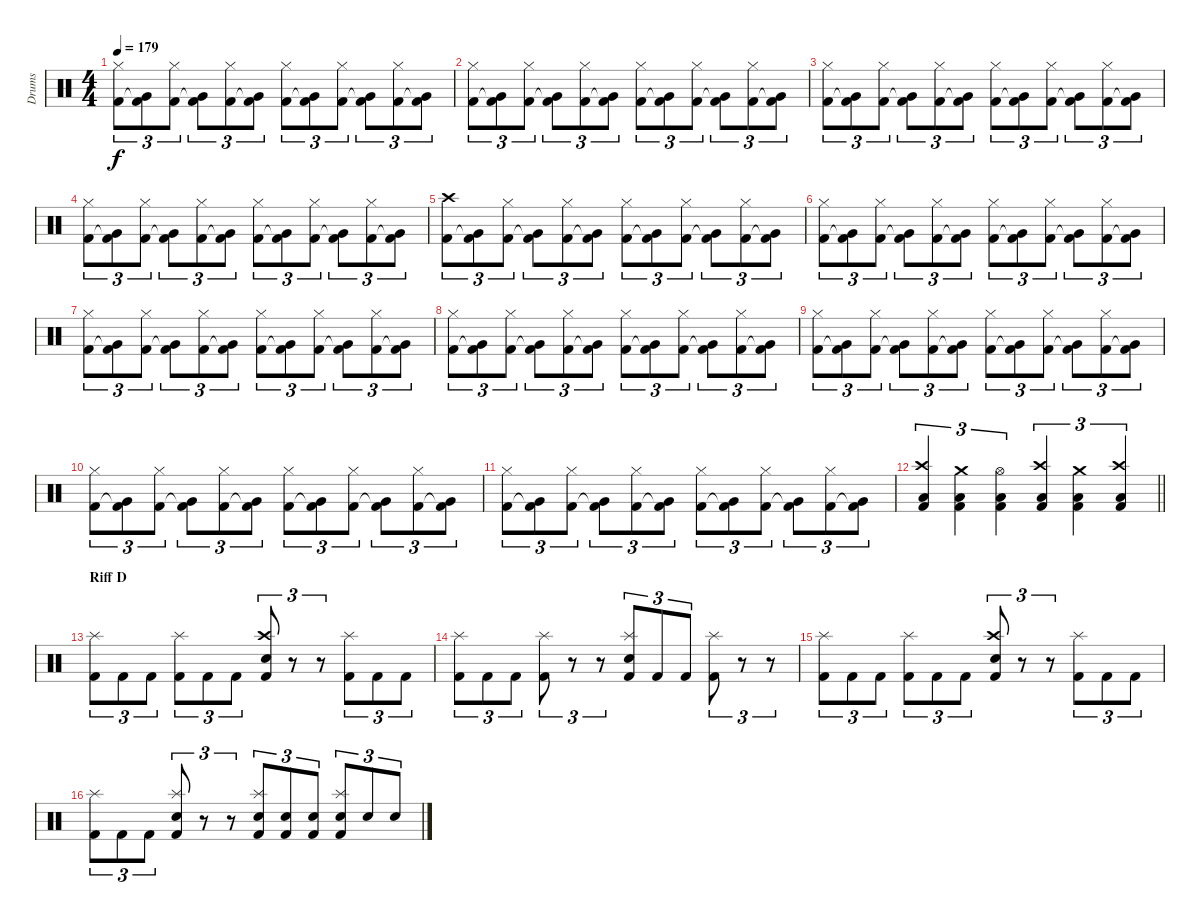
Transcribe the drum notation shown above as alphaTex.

\track ("Drums" "Drums") {instrument percussion}
\staff {score}
\articulation defaults
\ts (4 4)
\tempo 179
\clef neutral
\ks c
("Hi-Hat (closed)" "Kick (hit) 2").8{tu (3 2) dy f} ("Very Low Tom (hit)" "Kick (hit) 2"{t}).8{tu (3 2)} ("Hi-Hat (closed)" "Kick (hit) 2").8{tu (3 2)} ("Very Low Tom (hit)" "Kick (hit) 2"{t}).8{tu (3 2)} ("Hi-Hat (closed)" "Kick (hit) 2").8{tu (3 2)} ("Very Low Tom (hit)" "Kick (hit) 2"{t}).8{tu (3 2)} ("Hi-Hat (closed)" "Kick (hit) 2").8{tu (3 2)} ("Very Low Tom (hit)" "Kick (hit) 2"{t}).8{tu (3 2)} ("Hi-Hat (closed)" "Kick (hit) 2").8{tu (3 2)} ("Very Low Tom (hit)" "Kick (hit) 2"{t}).8{tu (3 2)} ("Hi-Hat (closed)" "Kick (hit) 2").8{tu (3 2)} ("Very Low Tom (hit)" "Kick (hit) 2"{t}).8{tu (3 2)} |
("Hi-Hat (closed)" "Kick (hit) 2").8{tu (3 2)} ("Very Low Tom (hit)" "Kick (hit) 2"{t}).8{tu (3 2)} ("Hi-Hat (closed)" "Kick (hit) 2").8{tu (3 2)} ("Very Low Tom (hit)" "Kick (hit) 2"{t}).8{tu (3 2)} ("Hi-Hat (closed)" "Kick (hit) 2").8{tu (3 2)} ("Very Low Tom (hit)" "Kick (hit) 2"{t}).8{tu (3 2)} ("Hi-Hat (closed)" "Kick (hit) 2").8{tu (3 2)} ("Very Low Tom (hit)" "Kick (hit) 2"{t}).8{tu (3 2)} ("Hi-Hat (closed)" "Kick (hit) 2").8{tu (3 2)} ("Very Low Tom (hit)" "Kick (hit) 2"{t}).8{tu (3 2)} ("Hi-Hat (closed)" "Kick (hit) 2").8{tu (3 2)} ("Very Low Tom (hit)" "Kick (hit) 2"{t}).8{tu (3 2)} |
("Hi-Hat (closed)" "Kick (hit) 2").8{tu (3 2)} ("Very Low Tom (hit)" "Kick (hit) 2"{t}).8{tu (3 2)} ("Hi-Hat (closed)" "Kick (hit) 2").8{tu (3 2)} ("Very Low Tom (hit)" "Kick (hit) 2"{t}).8{tu (3 2)} ("Hi-Hat (closed)" "Kick (hit) 2").8{tu (3 2)} ("Very Low Tom (hit)" "Kick (hit) 2"{t}).8{tu (3 2)} ("Hi-Hat (closed)" "Kick (hit) 2").8{tu (3 2)} ("Very Low Tom (hit)" "Kick (hit) 2"{t}).8{tu (3 2)} ("Hi-Hat (closed)" "Kick (hit) 2").8{tu (3 2)} ("Very Low Tom (hit)" "Kick (hit) 2"{t}).8{tu (3 2)} ("Hi-Hat (closed)" "Kick (hit) 2").8{tu (3 2)} ("Very Low Tom (hit)" "Kick (hit) 2"{t}).8{tu (3 2)} |
("Hi-Hat (closed)" "Kick (hit) 2").8{tu (3 2)} ("Very Low Tom (hit)" "Kick (hit) 2"{t}).8{tu (3 2)} ("Hi-Hat (closed)" "Kick (hit) 2").8{tu (3 2)} ("Very Low Tom (hit)" "Kick (hit) 2"{t}).8{tu (3 2)} ("Hi-Hat (closed)" "Kick (hit) 2").8{tu (3 2)} ("Very Low Tom (hit)" "Kick (hit) 2"{t}).8{tu (3 2)} ("Hi-Hat (closed)" "Kick (hit) 2").8{tu (3 2)} ("Very Low Tom (hit)" "Kick (hit) 2"{t}).8{tu (3 2)} ("Hi-Hat (closed)" "Kick (hit) 2").8{tu (3 2)} ("Very Low Tom (hit)" "Kick (hit) 2"{t}).8{tu (3 2)} ("Hi-Hat (closed)" "Kick (hit) 2").8{tu (3 2)} ("Very Low Tom (hit)" "Kick (hit) 2"{t}).8{tu (3 2)} |
("Crash high (hit)" "Kick (hit) 2").8{tu (3 2)} ("Very Low Tom (hit)" "Kick (hit) 2"{t}).8{tu (3 2)} ("Hi-Hat (closed)" "Kick (hit) 2").8{tu (3 2)} ("Very Low Tom (hit)" "Kick (hit) 2"{t}).8{tu (3 2)} ("Hi-Hat (closed)" "Kick (hit) 2").8{tu (3 2)} ("Very Low Tom (hit)" "Kick (hit) 2"{t}).8{tu (3 2)} ("Hi-Hat (closed)" "Kick (hit) 2").8{tu (3 2)} ("Very Low Tom (hit)" "Kick (hit) 2"{t}).8{tu (3 2)} ("Hi-Hat (closed)" "Kick (hit) 2").8{tu (3 2)} ("Very Low Tom (hit)" "Kick (hit) 2"{t}).8{tu (3 2)} ("Hi-Hat (closed)" "Kick (hit) 2").8{tu (3 2)} ("Very Low Tom (hit)" "Kick (hit) 2"{t}).8{tu (3 2)} |
("Hi-Hat (closed)" "Kick (hit) 2").8{tu (3 2)} ("Very Low Tom (hit)" "Kick (hit) 2"{t}).8{tu (3 2)} ("Hi-Hat (closed)" "Kick (hit) 2").8{tu (3 2)} ("Very Low Tom (hit)" "Kick (hit) 2"{t}).8{tu (3 2)} ("Hi-Hat (closed)" "Kick (hit) 2").8{tu (3 2)} ("Very Low Tom (hit)" "Kick (hit) 2"{t}).8{tu (3 2)} ("Hi-Hat (closed)" "Kick (hit) 2").8{tu (3 2)} ("Very Low Tom (hit)" "Kick (hit) 2"{t}).8{tu (3 2)} ("Hi-Hat (closed)" "Kick (hit) 2").8{tu (3 2)} ("Very Low Tom (hit)" "Kick (hit) 2"{t}).8{tu (3 2)} ("Hi-Hat (closed)" "Kick (hit) 2").8{tu (3 2)} ("Very Low Tom (hit)" "Kick (hit) 2"{t}).8{tu (3 2)} |
("Hi-Hat (closed)" "Kick (hit) 2").8{tu (3 2)} ("Very Low Tom (hit)" "Kick (hit) 2"{t}).8{tu (3 2)} ("Hi-Hat (closed)" "Kick (hit) 2").8{tu (3 2)} ("Very Low Tom (hit)" "Kick (hit) 2"{t}).8{tu (3 2)} ("Hi-Hat (closed)" "Kick (hit) 2").8{tu (3 2)} ("Very Low Tom (hit)" "Kick (hit) 2"{t}).8{tu (3 2)} ("Hi-Hat (closed)" "Kick (hit) 2").8{tu (3 2)} ("Very Low Tom (hit)" "Kick (hit) 2"{t}).8{tu (3 2)} ("Hi-Hat (closed)" "Kick (hit) 2").8{tu (3 2)} ("Very Low Tom (hit)" "Kick (hit) 2"{t}).8{tu (3 2)} ("Hi-Hat (closed)" "Kick (hit) 2").8{tu (3 2)} ("Very Low Tom (hit)" "Kick (hit) 2"{t}).8{tu (3 2)} |
("Hi-Hat (closed)" "Kick (hit) 2").8{tu (3 2)} ("Very Low Tom (hit)" "Kick (hit) 2"{t}).8{tu (3 2)} ("Hi-Hat (closed)" "Kick (hit) 2").8{tu (3 2)} ("Very Low Tom (hit)" "Kick (hit) 2"{t}).8{tu (3 2)} ("Hi-Hat (closed)" "Kick (hit) 2").8{tu (3 2)} ("Very Low Tom (hit)" "Kick (hit) 2"{t}).8{tu (3 2)} ("Hi-Hat (closed)" "Kick (hit) 2").8{tu (3 2)} ("Very Low Tom (hit)" "Kick (hit) 2"{t}).8{tu (3 2)} ("Hi-Hat (closed)" "Kick (hit) 2").8{tu (3 2)} ("Very Low Tom (hit)" "Kick (hit) 2"{t}).8{tu (3 2)} ("Hi-Hat (closed)" "Kick (hit) 2").8{tu (3 2)} ("Very Low Tom (hit)" "Kick (hit) 2"{t}).8{tu (3 2)} |
("Hi-Hat (closed)" "Kick (hit) 2").8{tu (3 2)} ("Very Low Tom (hit)" "Kick (hit) 2"{t}).8{tu (3 2)} ("Hi-Hat (closed)" "Kick (hit) 2").8{tu (3 2)} ("Very Low Tom (hit)" "Kick (hit) 2"{t}).8{tu (3 2)} ("Hi-Hat (closed)" "Kick (hit) 2").8{tu (3 2)} ("Very Low Tom (hit)" "Kick (hit) 2"{t}).8{tu (3 2)} ("Hi-Hat (closed)" "Kick (hit) 2").8{tu (3 2)} ("Very Low Tom (hit)" "Kick (hit) 2"{t}).8{tu (3 2)} ("Hi-Hat (closed)" "Kick (hit) 2").8{tu (3 2)} ("Very Low Tom (hit)" "Kick (hit) 2"{t}).8{tu (3 2)} ("Hi-Hat (closed)" "Kick (hit) 2").8{tu (3 2)} ("Very Low Tom (hit)" "Kick (hit) 2"{t}).8{tu (3 2)} |
("Hi-Hat (closed)" "Kick (hit) 2").8{tu (3 2)} ("Very Low Tom (hit)" "Kick (hit) 2"{t}).8{tu (3 2)} ("Hi-Hat (closed)" "Kick (hit) 2").8{tu (3 2)} ("Very Low Tom (hit)" "Kick (hit) 2"{t}).8{tu (3 2)} ("Hi-Hat (closed)" "Kick (hit) 2").8{tu (3 2)} ("Very Low Tom (hit)" "Kick (hit) 2"{t}).8{tu (3 2)} ("Hi-Hat (closed)" "Kick (hit) 2").8{tu (3 2)} ("Very Low Tom (hit)" "Kick (hit) 2"{t}).8{tu (3 2)} ("Hi-Hat (closed)" "Kick (hit) 2").8{tu (3 2)} ("Very Low Tom (hit)" "Kick (hit) 2"{t}).8{tu (3 2)} ("Hi-Hat (closed)" "Kick (hit) 2").8{tu (3 2)} ("Very Low Tom (hit)" "Kick (hit) 2"{t}).8{tu (3 2)} |
("Hi-Hat (closed)" "Kick (hit) 2").8{tu (3 2)} ("Very Low Tom (hit)" "Kick (hit) 2"{t}).8{tu (3 2)} ("Hi-Hat (closed)" "Kick (hit) 2").8{tu (3 2)} ("Very Low Tom (hit)" "Kick (hit) 2"{t}).8{tu (3 2)} ("Hi-Hat (closed)" "Kick (hit) 2").8{tu (3 2)} ("Very Low Tom (hit)" "Kick (hit) 2"{t}).8{tu (3 2)} ("Hi-Hat (closed)" "Kick (hit) 2").8{tu (3 2)} ("Very Low Tom (hit)" "Kick (hit) 2"{t}).8{tu (3 2)} ("Hi-Hat (closed)" "Kick (hit) 2").8{tu (3 2)} ("Very Low Tom (hit)" "Kick (hit) 2"{t}).8{tu (3 2)} ("Hi-Hat (closed)" "Kick (hit) 2").8{tu (3 2)} ("Very Low Tom (hit)" "Kick (hit) 2"{t}).8{tu (3 2)} |
\barLineRight lightlight
("Crash high (hit)" "Low Floor Tom (hit)" "Kick (hit) 2").4{tu (3 2)} ("Crash medium (hit)" "Low Floor Tom (hit)" "Kick (hit) 2").4{tu (3 2)} ("Hi-Hat (open)" "Low Floor Tom (hit)" "Kick (hit) 2").4{tu (3 2)} ("Crash high (hit)" "Low Floor Tom (hit)" "Kick (hit) 2").4{tu (3 2)} ("Crash medium (hit)" "Low Floor Tom (hit)" "Kick (hit) 2").4{tu (3 2)} ("Crash high (hit)" "Low Floor Tom (hit)" "Kick (hit) 2").4{tu (3 2)} |
\section ("" "Riff D")
("Splash (hit)" "Kick (hit) 2").8{tu (3 2)} "Kick (hit) 2".8{tu (3 2)} "Kick (hit) 2".8{tu (3 2)} ("Splash (hit)" "Kick (hit) 2").8{tu (3 2)} "Kick (hit) 2".8{tu (3 2)} "Kick (hit) 2".8{tu (3 2)} ("Crash high (hit)" "Electric Snare (hit)" "Kick (hit) 2").8{tu (3 2)} r.8{tu (3 2)} r.8{tu (3 2)} ("Splash (hit)" "Kick (hit) 2").8{tu (3 2)} "Kick (hit) 2".8{tu (3 2)} "Kick (hit) 2".8{tu (3 2)} |
("Splash (hit)" "Kick (hit) 2").8{tu (3 2)} "Kick (hit) 2".8{tu (3 2)} "Kick (hit) 2".8{tu (3 2)} ("Splash (hit)" "Kick (hit) 2").8{tu (3 2)} r.8{tu (3 2)} r.8{tu (3 2)} ("Splash (hit)" "Electric Snare (hit)" "Kick (hit) 2").8{tu (3 2)} "Kick (hit) 2".8{tu (3 2)} "Kick (hit) 2".8{tu (3 2)} ("Splash (hit)" "Kick (hit) 2").8{tu (3 2)} r.8{tu (3 2)} r.8{tu (3 2)} |
("Splash (hit)" "Kick (hit) 2").8{tu (3 2)} "Kick (hit) 2".8{tu (3 2)} "Kick (hit) 2".8{tu (3 2)} ("Splash (hit)" "Kick (hit) 2").8{tu (3 2)} "Kick (hit) 2".8{tu (3 2)} "Kick (hit) 2".8{tu (3 2)} ("Crash high (hit)" "Electric Snare (hit)" "Kick (hit) 2").8{tu (3 2)} r.8{tu (3 2)} r.8{tu (3 2)} ("Splash (hit)" "Kick (hit) 2").8{tu (3 2)} "Kick (hit) 2".8{tu (3 2)} "Kick (hit) 2".8{tu (3 2)} |
("Splash (hit)" "Kick (hit) 2").8{tu (3 2)} "Kick (hit) 2".8{tu (3 2)} "Kick (hit) 2".8{tu (3 2)} ("Splash (hit)" "Electric Snare (hit)" "Kick (hit) 2").8{tu (3 2)} r.8{tu (3 2)} r.8{tu (3 2)} ("Splash (hit)" "Electric Snare (hit)" "Kick (hit) 2").8{tu (3 2)} ("Electric Snare (hit)" "Kick (hit) 2").8{tu (3 2)} ("Electric Snare (hit)" "Kick (hit) 2").8{tu (3 2)} ("Splash (hit)" "Electric Snare (hit)" "Kick (hit) 2").8{tu (3 2)} "Electric Snare (hit)".8{tu (3 2)} "Electric Snare (hit)".8{tu (3 2)}
